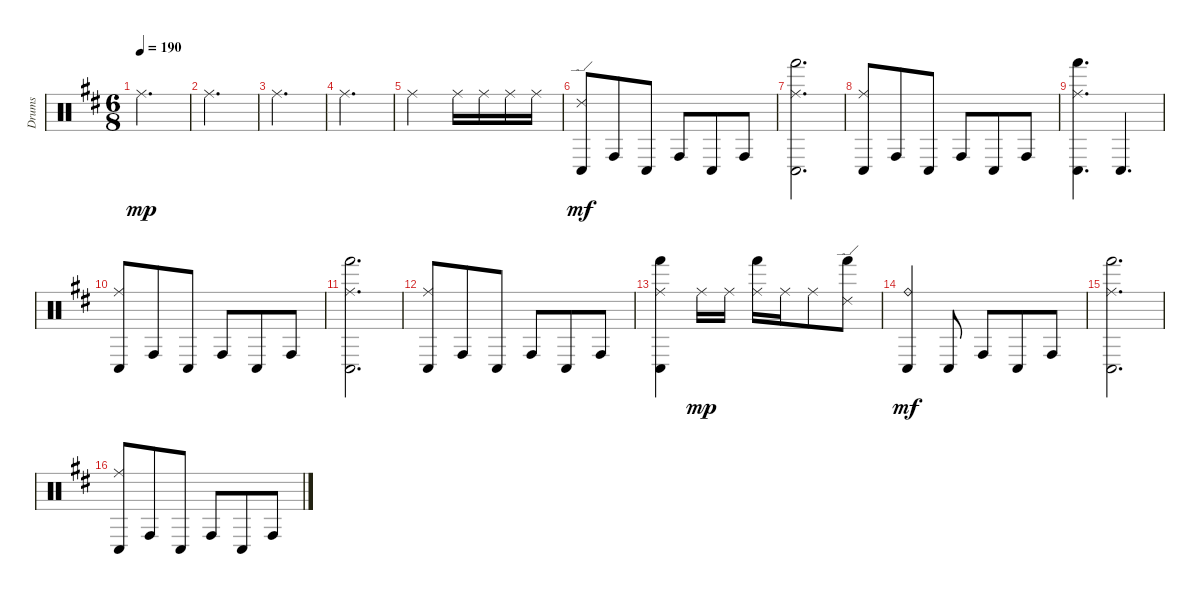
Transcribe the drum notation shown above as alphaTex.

\track ("Drums" "Drums") {instrument percussion}
\staff {score}
\articulation defaults
\ts (6 8)
\tempo 190
\clef neutral
\ks bminor "Ride (middle)".2{d dy mp}
|
"Ride (middle)".2{d} |
"Ride (middle)".2{d} |
"Ride (middle)".2{d} |
"Ride (middle)".2 "Ride (middle)".16 "Ride (middle)".16 "Ride (middle)".16 "Ride (middle)".16 |
("Ride (edge) 2" "Conga low (hit)").8{dy mf} "Conga high (hit)".8 "Conga low (hit)".8 "Conga high (hit)".8 "Conga low (hit)".8 "Conga high (hit)".8 |
("Ride (middle)" "Hand (hit)" "Conga low (hit)").2{d} |
("Ride (middle)" "Conga low (hit)").8 "Conga high (hit)".8 "Conga low (hit)".8 "Conga high (hit)".8 "Conga low (hit)".8 "Conga high (hit)".8 |
("Ride (middle)" "Hand (hit)" "Conga low (hit)").4{d} "Conga low (hit)".4{d} |
("Ride (middle)" "Conga low (hit)").8 "Conga high (hit)".8 "Conga low (hit)".8 "Conga high (hit)".8 "Conga low (hit)".8 "Conga high (hit)".8 |
("Ride (middle)" "Hand (hit)" "Conga low (hit)").2{d} |
("Ride (middle)" "Conga low (hit)").8 "Conga high (hit)".8 "Conga low (hit)".8 "Conga high (hit)".8 "Conga low (hit)".8 "Conga high (hit)".8 |
("Ride (middle)" "Hand (hit)" "Conga low (hit)").4 "Ride (middle)".16{dy mp} "Ride (middle)".16 ("Ride (middle)" "Hand (hit)").16 "Ride (middle)".16 "Ride (middle)".8 ("Ride (edge) 2" "Hand (hit)").8 |
("Ride (bell)" "Conga low (hit)").4{dy mf} "Conga low (hit)".8 "Conga high (hit)".8 "Conga low (hit)".8 "Conga high (hit)".8 |
("Ride (middle)" "Hand (hit)" "Conga low (hit)").2{d} |
("Ride (middle)" "Conga low (hit)").8 "Conga high (hit)".8 "Conga low (hit)".8 "Conga high (hit)".8 "Conga low (hit)".8 "Conga high (hit)".8
